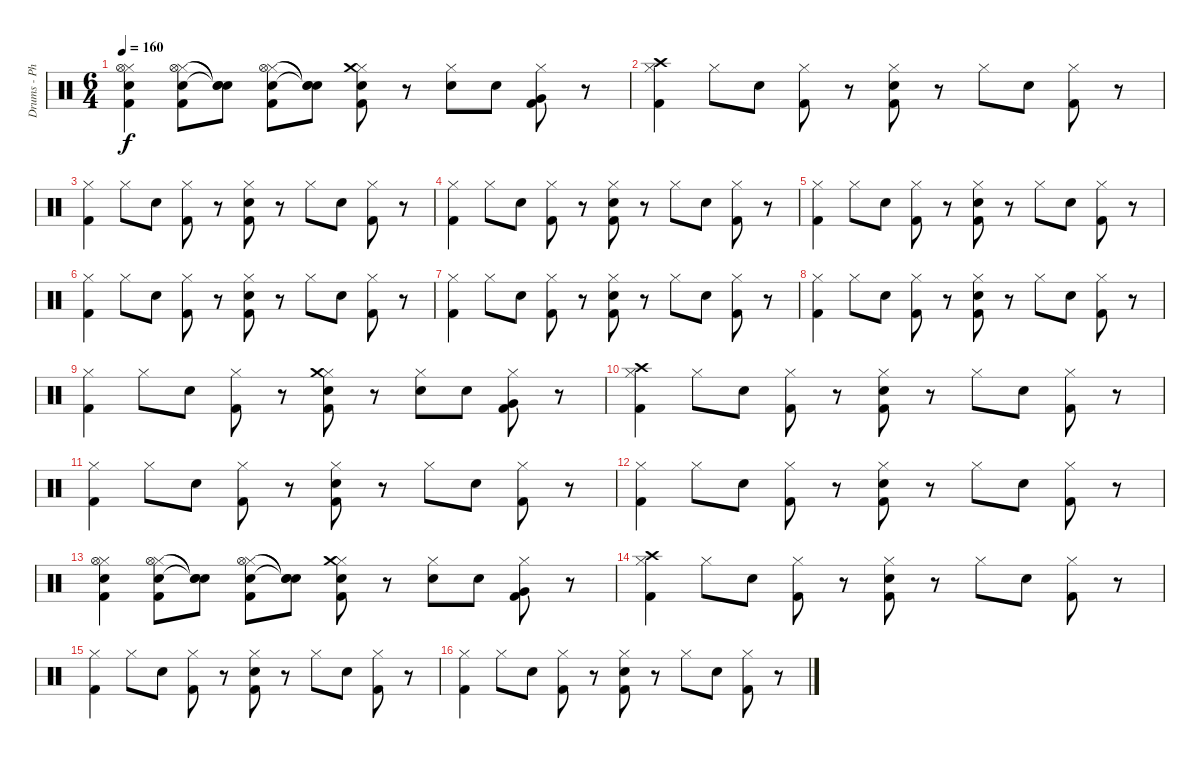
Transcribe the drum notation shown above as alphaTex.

\track ("Drums - Phil Selway" "Drums - Ph") {instrument percussion}
\staff {score}
\articulation defaults
\ts (6 4)
\tempo 160
\clef neutral
\ks c
("Hi-Hat (closed)" "Hi-Hat (open)" "Snare (hit) 2" "Kick (hit) 2").4{dy f} ("Hi-Hat (closed)" "Hi-Hat (open)" "Snare (hit) 2" "Kick (hit) 2").8 ("Snare (hit)"{t} "Snare (hit)"{t} "Snare (hit)"{t}).8 ("Hi-Hat (closed)" "Hi-Hat (open)" "Snare (hit) 2" "Kick (hit) 2").8 ("Snare (hit)"{t} "Snare (hit)"{t} "Snare (hit)"{t}).8 ("Hi-Hat (closed)" "Crash medium (hit)" "Snare (hit) 2" "Kick (hit) 2").8 r.8 ("Hi-Hat (closed)" "Snare (hit) 2").8 "Snare (hit) 2".8 ("Hi-Hat (closed)" "Very Low Tom (hit)" "Kick (hit) 2").8 r.8 |
("Hi-Hat (closed)" "Crash high (hit)" "Kick (hit) 2").4 "Hi-Hat (closed)".8 "Snare (hit) 2".8 ("Hi-Hat (closed)" "Kick (hit) 2").8 r.8 ("Hi-Hat (closed)" "Snare (hit) 2" "Kick (hit) 2").8 r.8 "Hi-Hat (closed)".8 "Snare (hit) 2".8 ("Hi-Hat (closed)" "Kick (hit) 2").8 r.8 |
("Hi-Hat (closed)" "Kick (hit) 2").4 "Hi-Hat (closed)".8 "Snare (hit) 2".8 ("Hi-Hat (closed)" "Kick (hit) 2").8 r.8 ("Hi-Hat (closed)" "Snare (hit) 2" "Kick (hit) 2").8 r.8 "Hi-Hat (closed)".8 "Snare (hit) 2".8 ("Hi-Hat (closed)" "Kick (hit) 2").8 r.8 |
("Hi-Hat (closed)" "Kick (hit) 2").4 "Hi-Hat (closed)".8 "Snare (hit) 2".8 ("Hi-Hat (closed)" "Kick (hit) 2").8 r.8 ("Hi-Hat (closed)" "Snare (hit) 2" "Kick (hit) 2").8 r.8 "Hi-Hat (closed)".8 "Snare (hit) 2".8 ("Hi-Hat (closed)" "Kick (hit) 2").8 r.8 |
("Hi-Hat (closed)" "Kick (hit) 2").4 "Hi-Hat (closed)".8 "Snare (hit) 2".8 ("Hi-Hat (closed)" "Kick (hit) 2").8 r.8 ("Hi-Hat (closed)" "Snare (hit) 2" "Kick (hit) 2").8 r.8 "Hi-Hat (closed)".8 "Snare (hit) 2".8 ("Hi-Hat (closed)" "Kick (hit) 2").8 r.8 |
("Hi-Hat (closed)" "Kick (hit) 2").4 "Hi-Hat (closed)".8 "Snare (hit) 2".8 ("Hi-Hat (closed)" "Kick (hit) 2").8 r.8 ("Hi-Hat (closed)" "Snare (hit) 2" "Kick (hit) 2").8 r.8 "Hi-Hat (closed)".8 "Snare (hit) 2".8 ("Hi-Hat (closed)" "Kick (hit) 2").8 r.8 |
("Hi-Hat (closed)" "Kick (hit) 2").4 "Hi-Hat (closed)".8 "Snare (hit) 2".8 ("Hi-Hat (closed)" "Kick (hit) 2").8 r.8 ("Hi-Hat (closed)" "Snare (hit) 2" "Kick (hit) 2").8 r.8 "Hi-Hat (closed)".8 "Snare (hit) 2".8 ("Hi-Hat (closed)" "Kick (hit) 2").8 r.8 |
("Hi-Hat (closed)" "Kick (hit) 2").4 "Hi-Hat (closed)".8 "Snare (hit) 2".8 ("Hi-Hat (closed)" "Kick (hit) 2").8 r.8 ("Hi-Hat (closed)" "Snare (hit) 2" "Kick (hit) 2").8 r.8 "Hi-Hat (closed)".8 "Snare (hit) 2".8 ("Hi-Hat (closed)" "Kick (hit) 2").8 r.8 |
("Hi-Hat (closed)" "Kick (hit) 2").4 "Hi-Hat (closed)".8 "Snare (hit) 2".8 ("Hi-Hat (closed)" "Kick (hit) 2").8 r.8 ("Hi-Hat (closed)" "Crash medium (hit)" "Snare (hit) 2" "Kick (hit) 2").8 r.8 ("Hi-Hat (closed)" "Snare (hit) 2").8 "Snare (hit) 2".8 ("Hi-Hat (closed)" "Very Low Tom (hit)" "Kick (hit) 2").8 r.8 |
("Hi-Hat (closed)" "Crash high (hit)" "Kick (hit) 2").4 "Hi-Hat (closed)".8 "Snare (hit) 2".8 ("Hi-Hat (closed)" "Kick (hit) 2").8 r.8 ("Hi-Hat (closed)" "Snare (hit) 2" "Kick (hit) 2").8 r.8 "Hi-Hat (closed)".8 "Snare (hit) 2".8 ("Hi-Hat (closed)" "Kick (hit) 2").8 r.8 |
("Hi-Hat (closed)" "Kick (hit) 2").4 "Hi-Hat (closed)".8 "Snare (hit) 2".8 ("Hi-Hat (closed)" "Kick (hit) 2").8 r.8 ("Hi-Hat (closed)" "Snare (hit) 2" "Kick (hit) 2").8 r.8 "Hi-Hat (closed)".8 "Snare (hit) 2".8 ("Hi-Hat (closed)" "Kick (hit) 2").8 r.8 |
("Hi-Hat (closed)" "Kick (hit) 2").4 "Hi-Hat (closed)".8 "Snare (hit) 2".8 ("Hi-Hat (closed)" "Kick (hit) 2").8 r.8 ("Hi-Hat (closed)" "Snare (hit) 2" "Kick (hit) 2").8 r.8 "Hi-Hat (closed)".8 "Snare (hit) 2".8 ("Hi-Hat (closed)" "Kick (hit) 2").8 r.8 |
("Hi-Hat (closed)" "Hi-Hat (open)" "Snare (hit) 2" "Kick (hit) 2").4 ("Hi-Hat (closed)" "Hi-Hat (open)" "Snare (hit) 2" "Kick (hit) 2").8 ("Snare (hit)"{t} "Snare (hit)"{t} "Snare (hit)"{t}).8 ("Hi-Hat (closed)" "Hi-Hat (open)" "Snare (hit) 2" "Kick (hit) 2").8 ("Snare (hit)"{t} "Snare (hit)"{t} "Snare (hit)"{t}).8 ("Hi-Hat (closed)" "Crash medium (hit)" "Snare (hit) 2" "Kick (hit) 2").8 r.8 ("Hi-Hat (closed)" "Snare (hit) 2").8 "Snare (hit) 2".8 ("Hi-Hat (closed)" "Very Low Tom (hit)" "Kick (hit) 2").8 r.8 |
("Hi-Hat (closed)" "Crash high (hit)" "Kick (hit) 2").4 "Hi-Hat (closed)".8 "Snare (hit) 2".8 ("Hi-Hat (closed)" "Kick (hit) 2").8 r.8 ("Hi-Hat (closed)" "Snare (hit) 2" "Kick (hit) 2").8 r.8 "Hi-Hat (closed)".8 "Snare (hit) 2".8 ("Hi-Hat (closed)" "Kick (hit) 2").8 r.8 |
("Hi-Hat (closed)" "Kick (hit) 2").4 "Hi-Hat (closed)".8 "Snare (hit) 2".8 ("Hi-Hat (closed)" "Kick (hit) 2").8 r.8 ("Hi-Hat (closed)" "Snare (hit) 2" "Kick (hit) 2").8 r.8 "Hi-Hat (closed)".8 "Snare (hit) 2".8 ("Hi-Hat (closed)" "Kick (hit) 2").8 r.8 |
("Hi-Hat (closed)" "Kick (hit) 2").4 "Hi-Hat (closed)".8 "Snare (hit) 2".8 ("Hi-Hat (closed)" "Kick (hit) 2").8 r.8 ("Hi-Hat (closed)" "Snare (hit) 2" "Kick (hit) 2").8 r.8 "Hi-Hat (closed)".8 "Snare (hit) 2".8 ("Hi-Hat (closed)" "Kick (hit) 2").8 r.8
